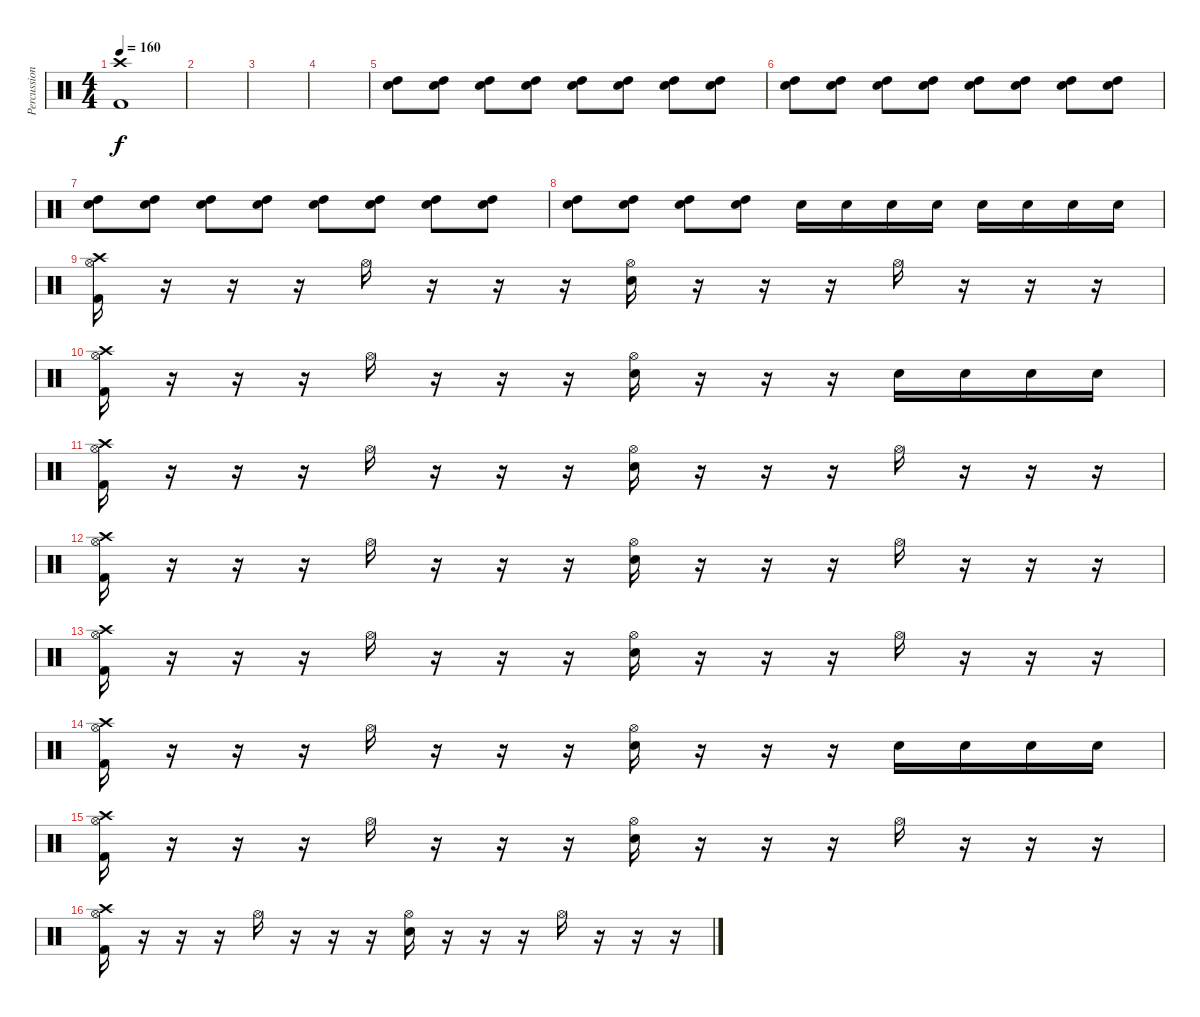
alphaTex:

\track ("Percussion" "Percussion") {instrument percussion}
\staff {score}
\articulation defaults
\ts (4 4)
\tempo 160
\clef neutral
\ks c
("Kick (hit) 2" "Crash high (hit)").1{dy f} |
|
|
|
("Electric Snare (hit)" "High Tom (hit)").8 ("Electric Snare (hit)" "High Tom (hit)").8 ("Electric Snare (hit)" "High Tom (hit)").8 ("Electric Snare (hit)" "High Tom (hit)").8 ("Electric Snare (hit)" "High Tom (hit)").8 ("Electric Snare (hit)" "High Tom (hit)").8 ("Electric Snare (hit)" "High Tom (hit)").8 ("Electric Snare (hit)" "High Tom (hit)").8{volume 6} |
("Electric Snare (hit)" "High Tom (hit)").8 ("Electric Snare (hit)" "High Tom (hit)").8 ("Electric Snare (hit)" "High Tom (hit)").8 ("Electric Snare (hit)" "High Tom (hit)").8 ("Electric Snare (hit)" "High Tom (hit)").8 ("Electric Snare (hit)" "High Tom (hit)").8 ("Electric Snare (hit)" "High Tom (hit)").8 ("Electric Snare (hit)" "High Tom (hit)").8{volume 11} |
("Electric Snare (hit)" "High Tom (hit)").8 ("Electric Snare (hit)" "High Tom (hit)").8 ("Electric Snare (hit)" "High Tom (hit)").8 ("Electric Snare (hit)" "High Tom (hit)").8 ("Electric Snare (hit)" "High Tom (hit)").8 ("Electric Snare (hit)" "High Tom (hit)").8 ("Electric Snare (hit)" "High Tom (hit)").8 ("Electric Snare (hit)" "High Tom (hit)").8{volume 16} |
("Electric Snare (hit)" "High Tom (hit)").8 ("Electric Snare (hit)" "High Tom (hit)").8 ("Electric Snare (hit)" "High Tom (hit)").8 ("Electric Snare (hit)" "High Tom (hit)").8 "Electric Snare (hit)".16 "Electric Snare (hit)".16 "Electric Snare (hit)".16 "Electric Snare (hit)".16 "Electric Snare (hit)".16 "Electric Snare (hit)".16 "Electric Snare (hit)".16 "Electric Snare (hit)".16 |
("Kick (hit) 2" "Hi-Hat (open)" "Crash high (hit)").16 r.16 r.16 r.16 "Hi-Hat (open)".16 r.16 r.16 r.16 ("Electric Snare (hit)" "Hi-Hat (open)").16 r.16 r.16 r.16 "Hi-Hat (open)".16 r.16 r.16 r.16 |
("Kick (hit) 2" "Hi-Hat (open)" "Crash high (hit)").16 r.16 r.16 r.16 "Hi-Hat (open)".16 r.16 r.16 r.16 ("Electric Snare (hit)" "Hi-Hat (open)").16 r.16 r.16 r.16 "Electric Snare (hit)".16 "Electric Snare (hit)".16 "Electric Snare (hit)".16 "Electric Snare (hit)".16 |
("Kick (hit) 2" "Hi-Hat (open)" "Crash high (hit)").16 r.16 r.16 r.16 "Hi-Hat (open)".16 r.16 r.16 r.16 ("Electric Snare (hit)" "Hi-Hat (open)").16 r.16 r.16 r.16 "Hi-Hat (open)".16 r.16 r.16 r.16 |
("Kick (hit) 2" "Hi-Hat (open)" "Crash high (hit)").16 r.16 r.16 r.16 "Hi-Hat (open)".16 r.16 r.16 r.16 ("Electric Snare (hit)" "Hi-Hat (open)").16 r.16 r.16 r.16 "Hi-Hat (open)".16 r.16 r.16 r.16 |
("Kick (hit) 2" "Hi-Hat (open)" "Crash high (hit)").16 r.16 r.16 r.16 "Hi-Hat (open)".16 r.16 r.16 r.16 ("Electric Snare (hit)" "Hi-Hat (open)").16 r.16 r.16 r.16 "Hi-Hat (open)".16 r.16 r.16 r.16 |
("Kick (hit) 2" "Hi-Hat (open)" "Crash high (hit)").16 r.16 r.16 r.16 "Hi-Hat (open)".16 r.16 r.16 r.16 ("Electric Snare (hit)" "Hi-Hat (open)").16 r.16 r.16 r.16 "Electric Snare (hit)".16 "Electric Snare (hit)".16 "Electric Snare (hit)".16 "Electric Snare (hit)".16 |
("Kick (hit) 2" "Hi-Hat (open)" "Crash high (hit)").16 r.16 r.16 r.16 "Hi-Hat (open)".16 r.16 r.16 r.16 ("Electric Snare (hit)" "Hi-Hat (open)").16 r.16 r.16 r.16 "Hi-Hat (open)".16 r.16 r.16 r.16 |
("Kick (hit) 2" "Hi-Hat (open)" "Crash high (hit)").16 r.16 r.16 r.16 "Hi-Hat (open)".16 r.16 r.16 r.16 ("Electric Snare (hit)" "Hi-Hat (open)").16 r.16 r.16 r.16 "Hi-Hat (open)".16 r.16 r.16 r.16
